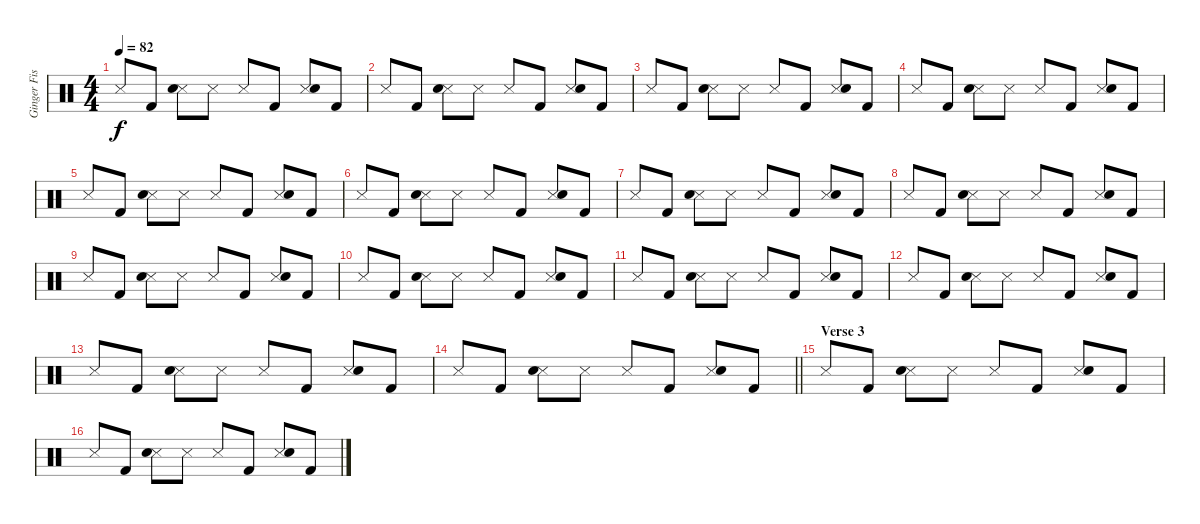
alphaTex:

\track ("Ginger Fish" "Ginger Fis") {instrument percussion}
\staff {score}
\articulation defaults
\ts (4 4)
\tempo 82
\clef neutral
\ks c "Metronome (hit)".8{dy f} "Kick (hit) 2".8
("Metronome (hit)" "Snare (hit) 2").8 "Metronome (hit)".8 "Metronome (hit)".8 "Kick (hit) 2".8 ("Metronome (hit)" "Snare (hit) 2").8 "Kick (hit) 2".8 |
"Metronome (hit)".8 "Kick (hit) 2".8 ("Metronome (hit)" "Snare (hit) 2").8 "Metronome (hit)".8 "Metronome (hit)".8 "Kick (hit) 2".8 ("Metronome (hit)" "Snare (hit) 2").8 "Kick (hit) 2".8 |
"Metronome (hit)".8 "Kick (hit) 2".8 ("Metronome (hit)" "Snare (hit) 2").8 "Metronome (hit)".8 "Metronome (hit)".8 "Kick (hit) 2".8 ("Metronome (hit)" "Snare (hit) 2").8 "Kick (hit) 2".8 |
"Metronome (hit)".8 "Kick (hit) 2".8 ("Metronome (hit)" "Snare (hit) 2").8 "Metronome (hit)".8 "Metronome (hit)".8 "Kick (hit) 2".8 ("Metronome (hit)" "Snare (hit) 2").8 "Kick (hit) 2".8 |
"Metronome (hit)".8 "Kick (hit) 2".8 ("Metronome (hit)" "Snare (hit) 2").8 "Metronome (hit)".8 "Metronome (hit)".8 "Kick (hit) 2".8 ("Metronome (hit)" "Snare (hit) 2").8 "Kick (hit) 2".8 |
"Metronome (hit)".8 "Kick (hit) 2".8 ("Metronome (hit)" "Snare (hit) 2").8 "Metronome (hit)".8 "Metronome (hit)".8 "Kick (hit) 2".8 ("Metronome (hit)" "Snare (hit) 2").8 "Kick (hit) 2".8 |
"Metronome (hit)".8 "Kick (hit) 2".8 ("Metronome (hit)" "Snare (hit) 2").8 "Metronome (hit)".8 "Metronome (hit)".8 "Kick (hit) 2".8 ("Metronome (hit)" "Snare (hit) 2").8 "Kick (hit) 2".8 |
"Metronome (hit)".8 "Kick (hit) 2".8 ("Metronome (hit)" "Snare (hit) 2").8 "Metronome (hit)".8 "Metronome (hit)".8 "Kick (hit) 2".8 ("Metronome (hit)" "Snare (hit) 2").8 "Kick (hit) 2".8 |
"Metronome (hit)".8 "Kick (hit) 2".8 ("Metronome (hit)" "Snare (hit) 2").8 "Metronome (hit)".8 "Metronome (hit)".8 "Kick (hit) 2".8 ("Metronome (hit)" "Snare (hit) 2").8 "Kick (hit) 2".8 |
"Metronome (hit)".8 "Kick (hit) 2".8 ("Metronome (hit)" "Snare (hit) 2").8 "Metronome (hit)".8 "Metronome (hit)".8 "Kick (hit) 2".8 ("Metronome (hit)" "Snare (hit) 2").8 "Kick (hit) 2".8 |
"Metronome (hit)".8 "Kick (hit) 2".8 ("Metronome (hit)" "Snare (hit) 2").8 "Metronome (hit)".8 "Metronome (hit)".8 "Kick (hit) 2".8 ("Metronome (hit)" "Snare (hit) 2").8 "Kick (hit) 2".8 |
"Metronome (hit)".8 "Kick (hit) 2".8 ("Metronome (hit)" "Snare (hit) 2").8 "Metronome (hit)".8 "Metronome (hit)".8 "Kick (hit) 2".8 ("Metronome (hit)" "Snare (hit) 2").8 "Kick (hit) 2".8 |
"Metronome (hit)".8 "Kick (hit) 2".8 ("Metronome (hit)" "Snare (hit) 2").8 "Metronome (hit)".8 "Metronome (hit)".8 "Kick (hit) 2".8 ("Metronome (hit)" "Snare (hit) 2").8 "Kick (hit) 2".8 |
\barLineRight lightlight "Metronome (hit)".8 "Kick (hit) 2".8
("Metronome (hit)" "Snare (hit) 2").8 "Metronome (hit)".8 "Metronome (hit)".8 "Kick (hit) 2".8 ("Metronome (hit)" "Snare (hit) 2").8 "Kick (hit) 2".8 |
\section ("" "Verse 3")
"Metronome (hit)".8 "Kick (hit) 2".8 ("Metronome (hit)" "Snare (hit) 2").8 "Metronome (hit)".8 "Metronome (hit)".8 "Kick (hit) 2".8 ("Metronome (hit)" "Snare (hit) 2").8 "Kick (hit) 2".8 |
"Metronome (hit)".8 "Kick (hit) 2".8 ("Metronome (hit)" "Snare (hit) 2").8 "Metronome (hit)".8 "Metronome (hit)".8 "Kick (hit) 2".8 ("Metronome (hit)" "Snare (hit) 2").8 "Kick (hit) 2".8
